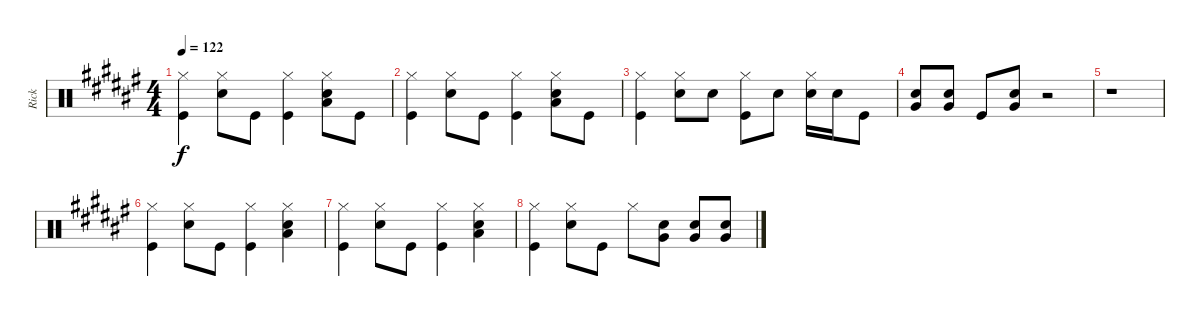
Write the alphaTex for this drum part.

\track ("Rick" "Rick") {instrument percussion}
\staff {score}
\articulation defaults
\ts (4 4)
\tempo 122
\clef neutral
\ks f#
("Hi-Hat (closed)" "Kick (hit)").4{dy f} ("Hi-Hat (closed)" "Snare (hit) 2").8 "Kick (hit)".8 ("Hi-Hat (closed)" "Kick (hit)").4 ("Hi-Hat (closed)" "Snare (hit) 2" "Low Tom (hit)").8 "Kick (hit)".8 |
("Hi-Hat (closed)" "Kick (hit)").4 ("Hi-Hat (closed)" "Snare (hit) 2").8 "Kick (hit)".8 ("Hi-Hat (closed)" "Kick (hit)").4 ("Hi-Hat (closed)" "Snare (hit) 2" "Low Tom (hit)").8 "Kick (hit)".8 |
("Hi-Hat (closed)" "Kick (hit)").4 ("Hi-Hat (closed)" "Snare (hit) 2").8 "Snare (hit) 2".8 ("Hi-Hat (closed)" "Kick (hit)").8 "Snare (hit) 2".8 ("Hi-Hat (closed)" "Snare (hit) 2").16 "Snare (hit) 2".16 "Kick (hit)".8 |
("Snare (hit) 2" "Very Low Tom (hit)").8 ("Snare (hit) 2" "Very Low Tom (hit)").8 "Kick (hit)".8 ("Snare (hit) 2" "Very Low Tom (hit)").8 r.2 |
r.1 |
("Hi-Hat (closed)" "Kick (hit)").4 ("Hi-Hat (closed)" "Snare (hit) 2").8 "Kick (hit)".8 ("Hi-Hat (closed)" "Kick (hit)").4 ("Hi-Hat (closed)" "Snare (hit) 2" "Low Tom (hit)").4 |
("Hi-Hat (closed)" "Kick (hit)").4 ("Hi-Hat (closed)" "Snare (hit) 2").8 "Kick (hit)".8 ("Hi-Hat (closed)" "Kick (hit)").4 ("Hi-Hat (closed)" "Snare (hit) 2" "Low Tom (hit)").4 |
("Hi-Hat (closed)" "Kick (hit)").4 ("Hi-Hat (closed)" "Snare (hit) 2").8 "Kick (hit)".8 "Hi-Hat (closed)".8 ("Snare (hit) 2" "Very Low Tom (hit)").8 ("Snare (hit) 2" "Very Low Tom (hit)").8 ("Snare (hit) 2" "Very Low Tom (hit)").8
